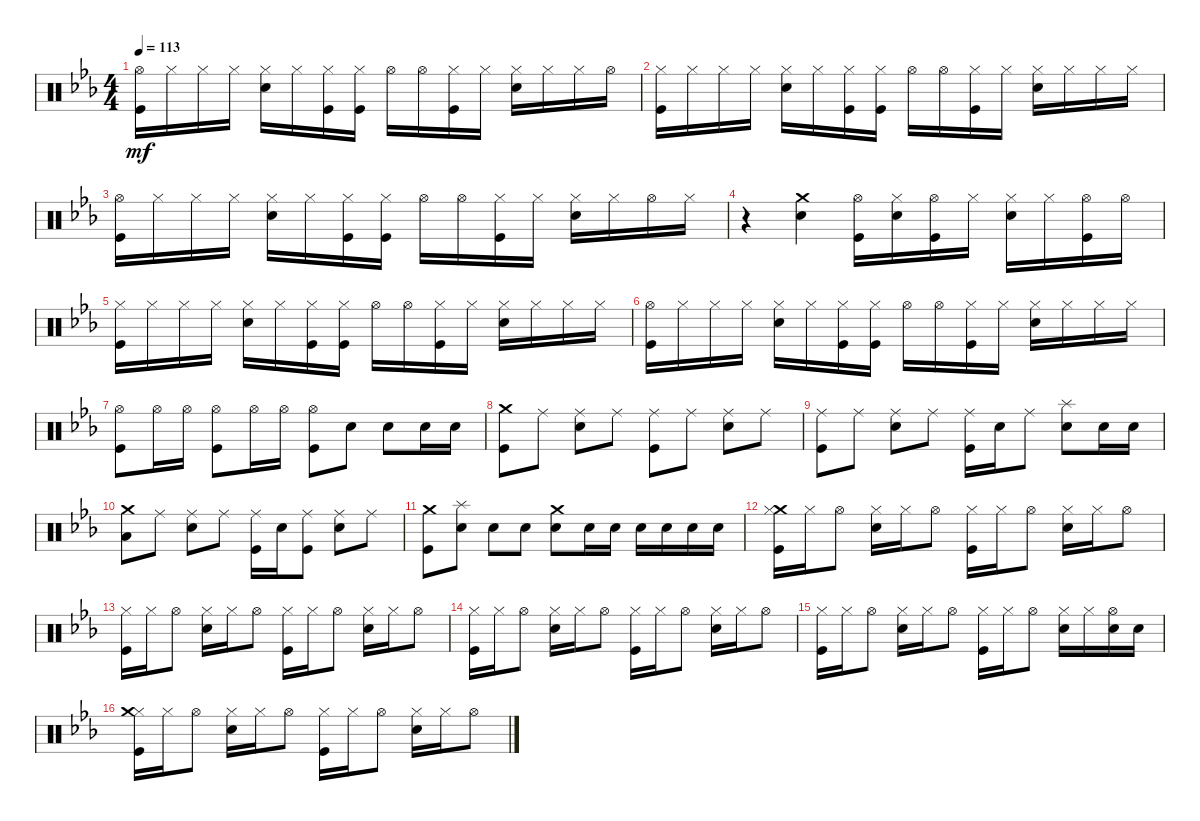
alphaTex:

\track "" {instrument percussion}
\staff {score}
\articulation defaults
\ts (4 4)
\tempo 113
\clef neutral
\ks eb
("Hi-Hat (open)" "Kick (hit)").16{dy mf} "Hi-Hat (closed)".16 "Hi-Hat (closed)".16 "Hi-Hat (closed)".16 ("Hi-Hat (closed)" "Snare (hit) 2").16 "Hi-Hat (closed)".16 ("Hi-Hat (closed)" "Kick (hit)").16 ("Hi-Hat (closed)" "Kick (hit)").16 "Hi-Hat (open)".16 "Hi-Hat (open)".16 ("Hi-Hat (closed)" "Kick (hit)").16 "Hi-Hat (closed)".16 ("Hi-Hat (closed)" "Snare (hit) 2").16 "Hi-Hat (closed)".16 "Hi-Hat (closed)".16 "Hi-Hat (open)".16 |
("Hi-Hat (closed)" "Kick (hit)").16 "Hi-Hat (closed)".16 "Hi-Hat (closed)".16 "Hi-Hat (closed)".16 ("Hi-Hat (closed)" "Snare (hit) 2").16 "Hi-Hat (closed)".16 ("Hi-Hat (closed)" "Kick (hit)").16 ("Hi-Hat (closed)" "Kick (hit)").16 "Hi-Hat (open)".16 "Hi-Hat (open)".16 ("Hi-Hat (closed)" "Kick (hit)").16 "Hi-Hat (closed)".16 ("Hi-Hat (closed)" "Snare (hit) 2").16 "Hi-Hat (closed)".16 "Hi-Hat (closed)".16 "Hi-Hat (closed)".16 |
("Hi-Hat (open)" "Kick (hit)").16 "Hi-Hat (closed)".16 "Hi-Hat (closed)".16 "Hi-Hat (closed)".16 ("Hi-Hat (closed)" "Snare (hit) 2").16 "Hi-Hat (closed)".16 ("Hi-Hat (closed)" "Kick (hit)").16 ("Hi-Hat (closed)" "Kick (hit)").16 "Hi-Hat (open)".16 "Hi-Hat (open)".16 ("Hi-Hat (closed)" "Kick (hit)").16 "Hi-Hat (closed)".16 ("Hi-Hat (closed)" "Snare (hit) 2").16 "Hi-Hat (closed)".16 "Hi-Hat (open)".16 "Hi-Hat (closed)".16 |
r.4 ("Snare (hit) 2" "Crash medium (hit)").4 ("Hi-Hat (open)" "Kick (hit)").16 ("Hi-Hat (closed)" "Snare (hit) 2").16 ("Hi-Hat (open)" "Kick (hit)").16 "Hi-Hat (closed)".16 ("Hi-Hat (closed)" "Snare (hit) 2").16 "Hi-Hat (closed)".16 ("Hi-Hat (open)" "Kick (hit)").16 "Hi-Hat (open)".16 |
("Hi-Hat (closed)" "Kick (hit)").16 "Hi-Hat (closed)".16 "Hi-Hat (closed)".16 "Hi-Hat (closed)".16 ("Hi-Hat (closed)" "Snare (hit) 2").16 "Hi-Hat (closed)".16 ("Hi-Hat (closed)" "Kick (hit)").16 ("Hi-Hat (closed)" "Kick (hit)").16 "Hi-Hat (open)".16 "Hi-Hat (open)".16 ("Hi-Hat (closed)" "Kick (hit)").16 "Hi-Hat (closed)".16 ("Hi-Hat (closed)" "Snare (hit) 2").16 "Hi-Hat (closed)".16 "Hi-Hat (closed)".16 "Hi-Hat (closed)".16 |
("Hi-Hat (open)" "Kick (hit)").16 "Hi-Hat (closed)".16 "Hi-Hat (closed)".16 "Hi-Hat (closed)".16 ("Hi-Hat (closed)" "Snare (hit) 2").16 "Hi-Hat (closed)".16 ("Hi-Hat (closed)" "Kick (hit)").16 ("Hi-Hat (closed)" "Kick (hit)").16 "Hi-Hat (open)".16 "Hi-Hat (open)".16 ("Hi-Hat (closed)" "Kick (hit)").16 "Hi-Hat (closed)".16 ("Hi-Hat (closed)" "Snare (hit) 2").16 "Hi-Hat (closed)".16 "Hi-Hat (closed)".16 "Hi-Hat (closed)".16 |
("Kick (hit)" "Hi-Hat (open)").8 "Hi-Hat (open)".16 "Hi-Hat (open)".16 ("Hi-Hat (open)" "Kick (hit)").8 "Hi-Hat (open)".16 "Hi-Hat (open)".16 ("Hi-Hat (open)" "Kick (hit)").8 "Snare (hit) 2".8 "Snare (hit) 2".8 "Snare (hit) 2".16 "Snare (hit) 2".16 |
("Crash medium (hit)" "Kick (hit)").8 "Ride (middle)".8 ("Ride (middle)" "Snare (hit) 2").8 "Ride (middle)".8 ("Kick (hit)" "Ride (middle)").8 "Ride (middle)".8 ("Ride (middle)" "Snare (hit) 2").8 "Ride (middle)".8 |
("Kick (hit)" "Ride (middle)").8 "Ride (middle)".8 ("Ride (middle)" "Snare (hit) 2").8 "Ride (middle)".8 ("Kick (hit)" "Ride (middle)").16 "Snare (hit) 2".16 "Ride (middle)".8 ("Snare (hit) 2" "Splash (hit)").8 "Snare (hit) 2".16 "Snare (hit) 2".16 |
("Low Floor Tom (hit)" "Crash medium (hit)").8 "Ride (middle)".8 ("Ride (middle)" "Snare (hit) 2").8 "Ride (middle)".8 ("Kick (hit)" "Ride (middle)").16 "Snare (hit) 2".16 ("Kick (hit)" "Ride (middle)").8 ("Snare (hit) 2" "Ride (middle)").8 "Ride (middle)".8 |
("Crash medium (hit)" "Kick (hit)").8 ("Snare (hit) 2" "Splash (hit)").8 "Snare (hit) 2".8 "Snare (hit) 2".8 ("Snare (hit) 2" "Crash medium (hit)").8 "Snare (hit) 2".16 "Snare (hit) 2".16 "Snare (hit) 2".16 "Snare (hit) 2".16 "Snare (hit) 2".16 "Snare (hit) 2".16 |
("Crash medium (hit)" "Hi-Hat (closed)" "Kick (hit)").16 "Hi-Hat (closed)".16 "Hi-Hat (open)".8 ("Hi-Hat (closed)" "Snare (hit) 2").16 "Hi-Hat (closed)".16 "Hi-Hat (open)".8 ("Hi-Hat (closed)" "Kick (hit)").16 "Hi-Hat (closed)".16 "Hi-Hat (open)".8 ("Hi-Hat (closed)" "Snare (hit) 2").16 "Hi-Hat (closed)".16 "Hi-Hat (open)".8 |
("Hi-Hat (closed)" "Kick (hit)").16 "Hi-Hat (closed)".16 "Hi-Hat (open)".8 ("Hi-Hat (closed)" "Snare (hit) 2").16 "Hi-Hat (closed)".16 "Hi-Hat (open)".8 ("Hi-Hat (closed)" "Kick (hit)").16 "Hi-Hat (closed)".16 "Hi-Hat (open)".8 ("Hi-Hat (closed)" "Snare (hit) 2").16 "Hi-Hat (closed)".16 "Hi-Hat (open)".8 |
("Hi-Hat (closed)" "Kick (hit)").16 "Hi-Hat (closed)".16 "Hi-Hat (open)".8 ("Hi-Hat (closed)" "Snare (hit) 2").16 "Hi-Hat (closed)".16 "Hi-Hat (open)".8 ("Hi-Hat (closed)" "Kick (hit)").16 "Hi-Hat (closed)".16 "Hi-Hat (open)".8 ("Hi-Hat (closed)" "Snare (hit) 2").16 "Hi-Hat (closed)".16 "Hi-Hat (open)".8 |
("Hi-Hat (closed)" "Kick (hit)").16 "Hi-Hat (closed)".16 "Hi-Hat (open)".8 ("Hi-Hat (closed)" "Snare (hit) 2").16 "Hi-Hat (closed)".16 "Hi-Hat (open)".8 ("Hi-Hat (closed)" "Kick (hit)").16 "Hi-Hat (closed)".16 "Hi-Hat (open)".8 ("Hi-Hat (closed)" "Snare (hit) 2").16 "Hi-Hat (closed)".16 ("Hi-Hat (open)" "Snare (hit) 2").16 "Snare (hit) 2".16 |
("Hi-Hat (closed)" "Kick (hit)" "Crash medium (hit)").16 "Hi-Hat (closed)".16 "Hi-Hat (open)".8 ("Hi-Hat (closed)" "Snare (hit) 2").16 "Hi-Hat (closed)".16 "Hi-Hat (open)".8 ("Hi-Hat (closed)" "Kick (hit)").16 "Hi-Hat (closed)".16 "Hi-Hat (open)".8 ("Hi-Hat (closed)" "Snare (hit) 2").16 "Hi-Hat (closed)".16 "Hi-Hat (open)".8
